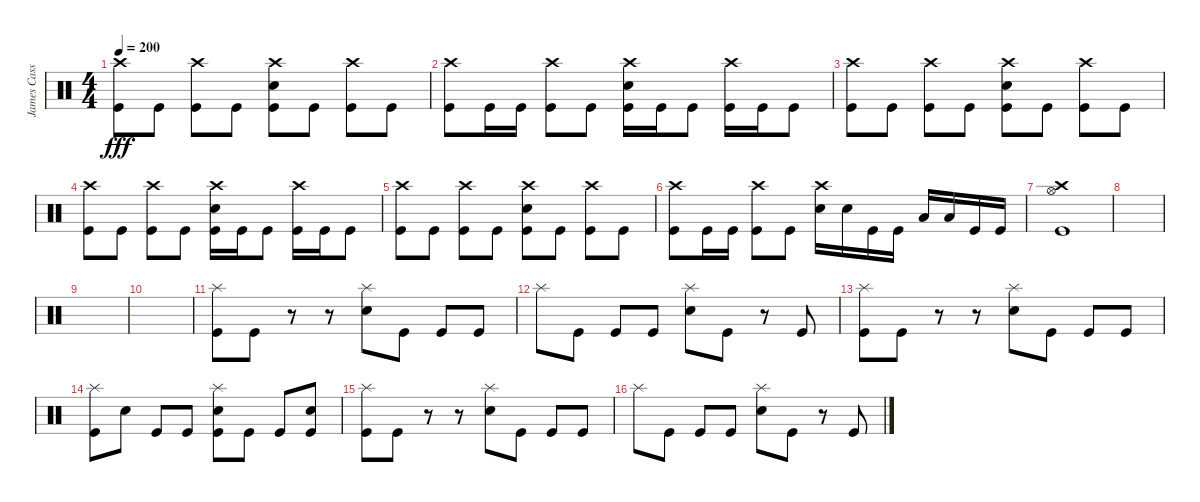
\track ("James Cassells" "James Cass") {instrument percussion}
\staff {score}
\articulation defaults
\ts (4 4)
\tempo 200
\clef neutral
\ks c
("Crash high (hit)" "Kick (hit)").8{dy fff} "Kick (hit)".8 ("Crash high (hit)" "Kick (hit)").8 "Kick (hit)".8 ("Crash high (hit)" "Electric Snare (hit)" "Kick (hit)").8 "Kick (hit)".8 ("Crash high (hit)" "Kick (hit)").8 "Kick (hit)".8 |
("Crash high (hit)" "Kick (hit)").8 "Kick (hit)".16 "Kick (hit)".16 ("Crash high (hit)" "Kick (hit)").8 "Kick (hit)".8 ("Crash high (hit)" "Electric Snare (hit)" "Kick (hit)").16 "Kick (hit)".16 "Kick (hit)".8 ("Crash high (hit)" "Kick (hit)").16 "Kick (hit)".16 "Kick (hit)".8 |
("Crash high (hit)" "Kick (hit)").8 "Kick (hit)".8 ("Crash high (hit)" "Kick (hit)").8 "Kick (hit)".8 ("Crash high (hit)" "Electric Snare (hit)" "Kick (hit)").8 "Kick (hit)".8 ("Crash high (hit)" "Kick (hit)").8 "Kick (hit)".8 |
("Crash high (hit)" "Kick (hit)").8 "Kick (hit)".8 ("Crash high (hit)" "Kick (hit)").8 "Kick (hit)".8 ("Crash high (hit)" "Electric Snare (hit)" "Kick (hit)").16 "Kick (hit)".16 "Kick (hit)".8 ("Crash high (hit)" "Kick (hit)").16 "Kick (hit)".16 "Kick (hit)".8 |
("Crash high (hit)" "Kick (hit)").8 "Kick (hit)".8 ("Crash high (hit)" "Kick (hit)").8 "Kick (hit)".8 ("Crash high (hit)" "Electric Snare (hit)" "Kick (hit)").8 "Kick (hit)".8 ("Crash high (hit)" "Kick (hit)").8 "Kick (hit)".8 |
("Crash high (hit)" "Kick (hit)").8 "Kick (hit)".16 "Kick (hit)".16 ("Crash high (hit)" "Kick (hit)").8 "Kick (hit)".8 ("Crash high (hit)" "Electric Snare (hit)").16 "Electric Snare (hit)".16 "Kick (hit)".16 "Kick (hit)".16 "Low Tom (hit)".16 "Low Tom (hit)".16 "Kick (hit)".16 "Kick (hit)".16 |
("Crash high (hit)" "Hi-Hat (open)" "Kick (hit)").1 |
|
|
|
("Splash (hit)" "Kick (hit)").8 "Kick (hit)".8 r.8 r.8 ("Splash (hit)" "Electric Snare (hit)").8 "Kick (hit)".8 "Kick (hit)".8 "Kick (hit)".8 |
"Splash (hit)".8 "Kick (hit)".8 "Kick (hit)".8 "Kick (hit)".8 ("Splash (hit)" "Electric Snare (hit)").8 "Kick (hit)".8 r.8 "Kick (hit)".8 |
("Splash (hit)" "Kick (hit)").8 "Kick (hit)".8 r.8 r.8 ("Splash (hit)" "Electric Snare (hit)").8 "Kick (hit)".8 "Kick (hit)".8 "Kick (hit)".8 |
("Splash (hit)" "Kick (hit)").8 "Electric Snare (hit)".8 "Kick (hit)".8 "Kick (hit)".8 ("Splash (hit)" "Electric Snare (hit)" "Kick (hit)").8 "Kick (hit)".8 "Kick (hit)".8 ("Electric Snare (hit)" "Kick (hit)").8 |
("Splash (hit)" "Kick (hit)").8 "Kick (hit)".8 r.8 r.8 ("Splash (hit)" "Electric Snare (hit)").8 "Kick (hit)".8 "Kick (hit)".8 "Kick (hit)".8 |
"Splash (hit)".8 "Kick (hit)".8 "Kick (hit)".8 "Kick (hit)".8 ("Splash (hit)" "Electric Snare (hit)").8 "Kick (hit)".8 r.8 "Kick (hit)".8
